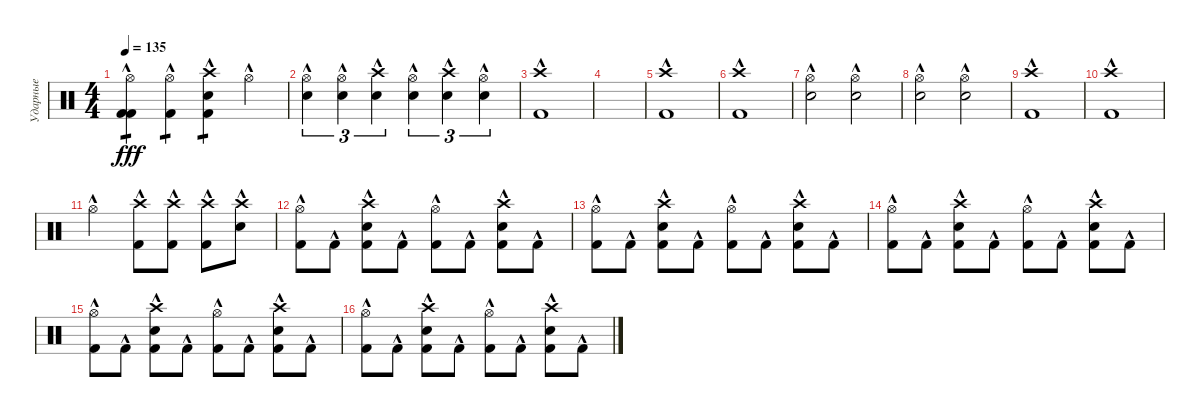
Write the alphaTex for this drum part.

\track ("Ударные" "Ударные") {instrument percussion}
\staff
\articulation defaults
\ts (4 4)
\tempo 135
\clef neutral
\ks c
("Kick (hit) 2"{hac} "Kick (hit) 2"{hac} "Hi-Hat (open)"{hac}).4{tp 1 dy fff} ("Kick (hit) 2"{hac} "Hi-Hat (open)"{hac}).4{tp 1} ("Kick (hit) 2"{hac} "Electric Snare (hit)"{hac} "Crash high (hit)"{hac}).4{tp 1} "Hi-Hat (open)"{hac}.4 |
("Hi-Hat (open)"{hac} "Electric Snare (hit)"{hac}).4{tu (3 2)} ("Hi-Hat (open)"{hac} "Electric Snare (hit)"{hac}).4{tu (3 2)} ("Crash high (hit)"{hac} "Electric Snare (hit)"{hac}).4{tu (3 2)} ("Hi-Hat (open)"{hac} "Electric Snare (hit)"{hac}).4{tu (3 2)} ("Crash high (hit)"{hac} "Electric Snare (hit)"{hac}).4{tu (3 2)} ("Hi-Hat (open)"{hac} "Electric Snare (hit)"{hac}).4{tu (3 2)} |
("Crash high (hit)"{hac} "Kick (hit) 2"{hac}).1 |
|
("Crash high (hit)"{hac} "Kick (hit) 2"{hac}).1 |
("Kick (hit) 2"{hac} "Crash high (hit)"{hac}).1 |
("Electric Snare (hit)"{hac} "Hi-Hat (open)"{hac}).2 ("Electric Snare (hit)"{hac} "Hi-Hat (open)"{hac}).2 |
("Electric Snare (hit)"{hac} "Hi-Hat (open)"{hac}).2 ("Electric Snare (hit)"{hac} "Hi-Hat (open)"{hac}).2 |
("Crash high (hit)"{hac} "Kick (hit) 2"{hac}).1 |
("Kick (hit) 2"{hac} "Crash high (hit)"{hac}).1 |
"Hi-Hat (open)"{hac}.2 ("Crash high (hit)"{hac} "Kick (hit) 2"{hac}).8 ("Crash high (hit)"{hac} "Kick (hit) 2"{hac}).8 ("Crash high (hit)"{hac} "Kick (hit) 2"{hac}).8 ("Crash high (hit)"{hac} "Electric Snare (hit)"{hac}).8 |
("Kick (hit) 2"{hac} "Hi-Hat (open)"{hac}).8 "Kick (hit) 2"{hac}.8 ("Kick (hit) 2"{hac} "Electric Snare (hit)"{hac} "Crash high (hit)"{hac}).8 "Kick (hit) 2"{hac}.8 ("Kick (hit) 2"{hac} "Hi-Hat (open)"{hac}).8 "Kick (hit) 2"{hac}.8 ("Kick (hit) 2"{hac} "Electric Snare (hit)"{hac} "Crash high (hit)"{hac}).8 "Kick (hit) 2"{hac}.8 |
("Kick (hit) 2"{hac} "Hi-Hat (open)"{hac}).8 "Kick (hit) 2"{hac}.8 ("Kick (hit) 2"{hac} "Electric Snare (hit)"{hac} "Crash high (hit)"{hac}).8 "Kick (hit) 2"{hac}.8 ("Kick (hit) 2"{hac} "Hi-Hat (open)"{hac}).8 "Kick (hit) 2"{hac}.8 ("Kick (hit) 2"{hac} "Electric Snare (hit)"{hac} "Crash high (hit)"{hac}).8 "Kick (hit) 2"{hac}.8 |
("Kick (hit) 2"{hac} "Hi-Hat (open)"{hac}).8 "Kick (hit) 2"{hac}.8 ("Kick (hit) 2"{hac} "Electric Snare (hit)"{hac} "Crash high (hit)"{hac}).8 "Kick (hit) 2"{hac}.8 ("Kick (hit) 2"{hac} "Hi-Hat (open)"{hac}).8 "Kick (hit) 2"{hac}.8 ("Kick (hit) 2"{hac} "Electric Snare (hit)"{hac} "Crash high (hit)"{hac}).8 "Kick (hit) 2"{hac}.8 |
("Kick (hit) 2"{hac} "Hi-Hat (open)"{hac}).8 "Kick (hit) 2"{hac}.8 ("Kick (hit) 2"{hac} "Electric Snare (hit)"{hac} "Crash high (hit)"{hac}).8 "Kick (hit) 2"{hac}.8 ("Kick (hit) 2"{hac} "Hi-Hat (open)"{hac}).8 "Kick (hit) 2"{hac}.8 ("Kick (hit) 2"{hac} "Electric Snare (hit)"{hac} "Crash high (hit)"{hac}).8 "Kick (hit) 2"{hac}.8 |
("Kick (hit) 2"{hac} "Hi-Hat (open)"{hac}).8 "Kick (hit) 2"{hac}.8 ("Kick (hit) 2"{hac} "Electric Snare (hit)"{hac} "Crash high (hit)"{hac}).8 "Kick (hit) 2"{hac}.8 ("Kick (hit) 2"{hac} "Hi-Hat (open)"{hac}).8 "Kick (hit) 2"{hac}.8 ("Kick (hit) 2"{hac} "Electric Snare (hit)"{hac} "Crash high (hit)"{hac}).8 "Kick (hit) 2"{hac}.8
